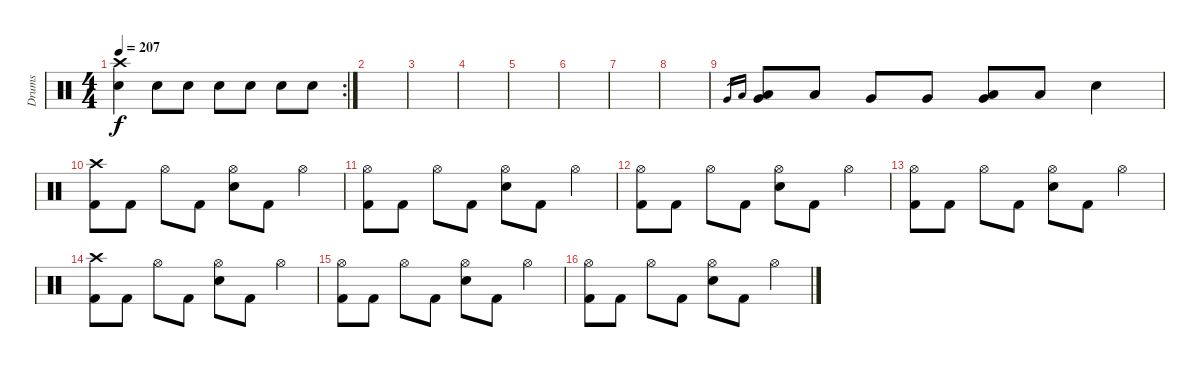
\track ("Drums" "Drums") {instrument percussion}
\staff {score}
\articulation defaults
\rc 2
\ts (4 4)
\tempo 207
\clef neutral
\ks c
("Crash high (hit)" "Electric Snare (hit)").4{dy f} "Electric Snare (hit)".8 "Electric Snare (hit)".8 "Electric Snare (hit)".8 "Electric Snare (hit)".8 "Electric Snare (hit)".8 "Electric Snare (hit)".8 |
|
|
|
|
|
|
|
"Very Low Tom (hit)".16{gr} "Low Tom (hit)".16{gr} ("Very Low Tom (hit)" "Low Tom (hit)").8 "Low Tom (hit)".8 "Very Low Tom (hit)".8 "Very Low Tom (hit)".8 ("Low Tom (hit)" "Very Low Tom (hit)").8 "Low Floor Tom (hit)".8 "Electric Snare (hit)".4 |
("Crash high (hit)" "Kick (hit) 2").8 "Kick (hit) 2".8 "Hi-Hat (open)".8 "Kick (hit) 2".8 ("Hi-Hat (open)" "Electric Snare (hit)").8 "Kick (hit) 2".8 "Hi-Hat (open)".4 |
("Hi-Hat (open)" "Kick (hit) 2").8 "Kick (hit) 2".8 "Hi-Hat (open)".8 "Kick (hit) 2".8 ("Hi-Hat (open)" "Electric Snare (hit)").8 "Kick (hit) 2".8 "Hi-Hat (open)".4 |
("Hi-Hat (open)" "Kick (hit) 2").8 "Kick (hit) 2".8 "Hi-Hat (open)".8 "Kick (hit) 2".8 ("Hi-Hat (open)" "Electric Snare (hit)").8 "Kick (hit) 2".8 "Hi-Hat (open)".4 |
("Hi-Hat (open)" "Kick (hit) 2").8 "Kick (hit) 2".8 "Hi-Hat (open)".8 "Kick (hit) 2".8 ("Hi-Hat (open)" "Electric Snare (hit)").8 "Kick (hit) 2".8 "Hi-Hat (open)".4 |
("Crash high (hit)" "Kick (hit) 2").8 "Kick (hit) 2".8 "Hi-Hat (open)".8 "Kick (hit) 2".8 ("Hi-Hat (open)" "Electric Snare (hit)").8 "Kick (hit) 2".8 "Hi-Hat (open)".4 |
("Hi-Hat (open)" "Kick (hit) 2").8 "Kick (hit) 2".8 "Hi-Hat (open)".8 "Kick (hit) 2".8 ("Hi-Hat (open)" "Electric Snare (hit)").8 "Kick (hit) 2".8 "Hi-Hat (open)".4 |
("Hi-Hat (open)" "Kick (hit) 2").8 "Kick (hit) 2".8 "Hi-Hat (open)".8 "Kick (hit) 2".8 ("Hi-Hat (open)" "Electric Snare (hit)").8 "Kick (hit) 2".8 "Hi-Hat (open)".4
